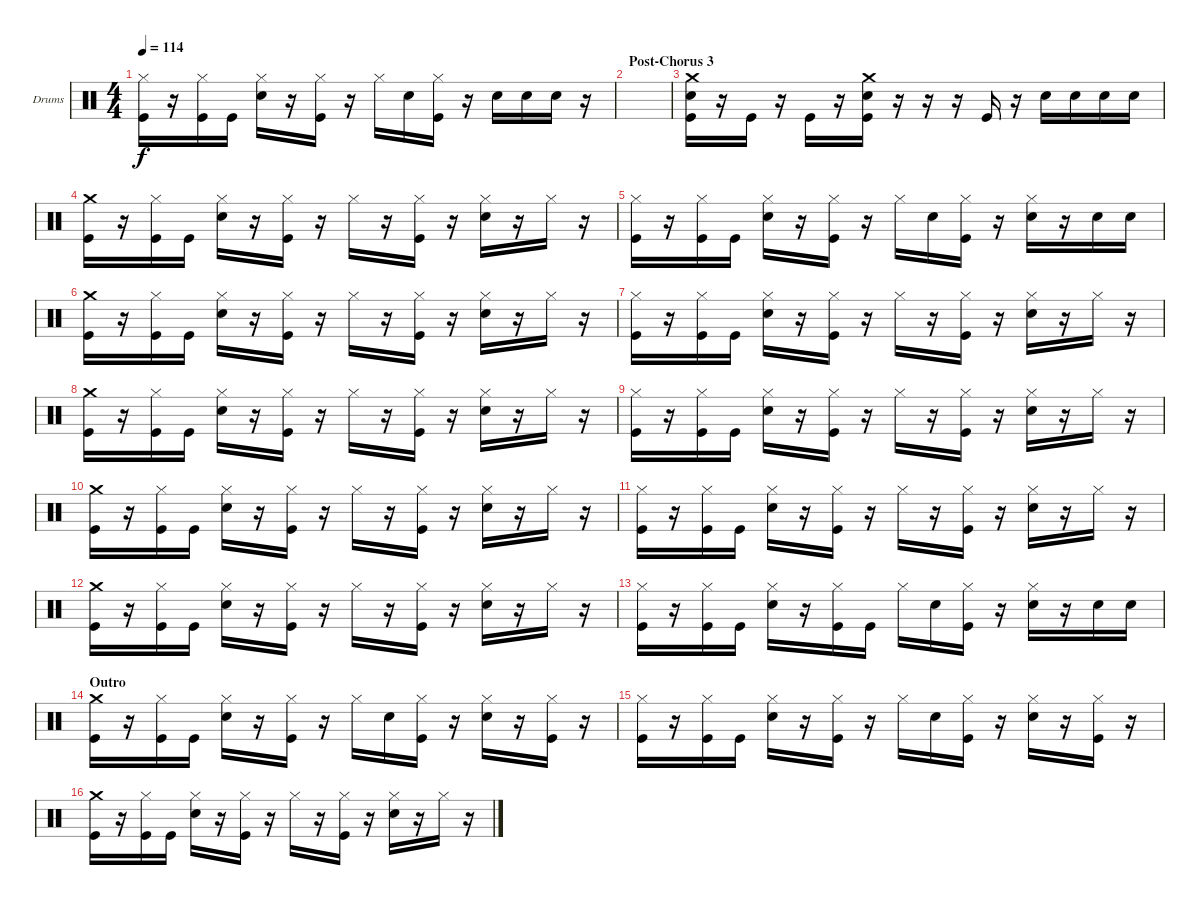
\bracketExtendMode groupsimilarinstruments
\firstSystemTrackNameOrientation horizontal
\otherSystemsTrackNameOrientation horizontal
\track ("Drums" "Drums") {instrument percussion}
\staff {score}
\articulation defaults
\ts (4 4)
\tempo 114
\clef neutral
\ks c
("Hi-Hat (closed)" "Kick (hit)").16{dy f} r.16 ("Hi-Hat (closed)" "Kick (hit)").16 "Kick (hit)".16 ("Hi-Hat (closed)" "Snare (hit) 2").16 r.16 ("Hi-Hat (closed)" "Kick (hit)").16 r.16 "Hi-Hat (closed)".16 "Snare (hit) 2".16 ("Hi-Hat (closed)" "Kick (hit)").16 r.16 "Snare (hit) 2".16 "Snare (hit) 2".16 "Snare (hit) 2".16 r.16 |
\section ("" "Post-Chorus 3")
|
("Crash medium (hit)" "Snare (hit) 2" "Kick (hit)").16 r.16 "Kick (hit)".16 r.16 "Kick (hit)".16 r.16 ("Crash medium (hit)" "Snare (hit) 2" "Kick (hit)").16 r.16 r.16 r.16 "Kick (hit)".16 r.16 "Snare (hit) 2".16 "Snare (hit) 2".16 "Snare (hit) 2".16 "Snare (hit) 2".16 |
("Crash medium (hit)" "Kick (hit)").16 r.16 ("Hi-Hat (closed)" "Kick (hit)").16 "Kick (hit)".16 ("Hi-Hat (closed)" "Snare (hit) 2").16 r.16 ("Hi-Hat (closed)" "Kick (hit)").16 r.16 "Hi-Hat (closed)".16 r.16 ("Hi-Hat (closed)" "Kick (hit)").16 r.16 ("Hi-Hat (closed)" "Snare (hit) 2").16 r.16 "Hi-Hat (closed)".16 r.16 |
("Hi-Hat (closed)" "Kick (hit)").16 r.16 ("Hi-Hat (closed)" "Kick (hit)").16 "Kick (hit)".16 ("Hi-Hat (closed)" "Snare (hit) 2").16 r.16 ("Hi-Hat (closed)" "Kick (hit)").16 r.16 "Hi-Hat (closed)".16 "Snare (hit) 2".16 ("Hi-Hat (closed)" "Kick (hit)").16 r.16 ("Hi-Hat (closed)" "Snare (hit) 2").16 r.16 "Snare (hit) 2".16 "Snare (hit) 2".16 |
("Crash medium (hit)" "Kick (hit)").16 r.16 ("Hi-Hat (closed)" "Kick (hit)").16 "Kick (hit)".16 ("Hi-Hat (closed)" "Snare (hit) 2").16 r.16 ("Hi-Hat (closed)" "Kick (hit)").16 r.16 "Hi-Hat (closed)".16 r.16 ("Hi-Hat (closed)" "Kick (hit)").16 r.16 ("Hi-Hat (closed)" "Snare (hit) 2").16 r.16 "Hi-Hat (closed)".16 r.16 |
("Hi-Hat (closed)" "Kick (hit)").16 r.16 ("Hi-Hat (closed)" "Kick (hit)").16 "Kick (hit)".16 ("Hi-Hat (closed)" "Snare (hit) 2").16 r.16 ("Hi-Hat (closed)" "Kick (hit)").16 r.16 "Hi-Hat (closed)".16 r.16 ("Hi-Hat (closed)" "Kick (hit)").16 r.16 ("Hi-Hat (closed)" "Snare (hit) 2").16 r.16 "Hi-Hat (closed)".16 r.16 |
("Crash medium (hit)" "Kick (hit)").16 r.16 ("Hi-Hat (closed)" "Kick (hit)").16 "Kick (hit)".16 ("Hi-Hat (closed)" "Snare (hit) 2").16 r.16 ("Hi-Hat (closed)" "Kick (hit)").16 r.16 "Hi-Hat (closed)".16 r.16 ("Hi-Hat (closed)" "Kick (hit)").16 r.16 ("Hi-Hat (closed)" "Snare (hit) 2").16 r.16 "Hi-Hat (closed)".16 r.16 |
("Hi-Hat (closed)" "Kick (hit)").16 r.16 ("Hi-Hat (closed)" "Kick (hit)").16 "Kick (hit)".16 ("Hi-Hat (closed)" "Snare (hit) 2").16 r.16 ("Hi-Hat (closed)" "Kick (hit)").16 r.16 "Hi-Hat (closed)".16 r.16 ("Hi-Hat (closed)" "Kick (hit)").16 r.16 ("Hi-Hat (closed)" "Snare (hit) 2").16 r.16 "Hi-Hat (closed)".16 r.16 |
("Crash medium (hit)" "Kick (hit)").16 r.16 ("Hi-Hat (closed)" "Kick (hit)").16 "Kick (hit)".16 ("Hi-Hat (closed)" "Snare (hit) 2").16 r.16 ("Hi-Hat (closed)" "Kick (hit)").16 r.16 "Hi-Hat (closed)".16 r.16 ("Hi-Hat (closed)" "Kick (hit)").16 r.16 ("Hi-Hat (closed)" "Snare (hit) 2").16 r.16 "Hi-Hat (closed)".16 r.16 |
("Hi-Hat (closed)" "Kick (hit)").16 r.16 ("Hi-Hat (closed)" "Kick (hit)").16 "Kick (hit)".16 ("Hi-Hat (closed)" "Snare (hit) 2").16 r.16 ("Hi-Hat (closed)" "Kick (hit)").16 r.16 "Hi-Hat (closed)".16 r.16 ("Hi-Hat (closed)" "Kick (hit)").16 r.16 ("Hi-Hat (closed)" "Snare (hit) 2").16 r.16 "Hi-Hat (closed)".16 r.16 |
("Crash medium (hit)" "Kick (hit)").16 r.16 ("Hi-Hat (closed)" "Kick (hit)").16 "Kick (hit)".16 ("Hi-Hat (closed)" "Snare (hit) 2").16 r.16 ("Hi-Hat (closed)" "Kick (hit)").16 r.16 "Hi-Hat (closed)".16 r.16 ("Hi-Hat (closed)" "Kick (hit)").16 r.16 ("Hi-Hat (closed)" "Snare (hit) 2").16 r.16 "Hi-Hat (closed)".16 r.16 |
("Hi-Hat (closed)" "Kick (hit)").16 r.16 ("Hi-Hat (closed)" "Kick (hit)").16 "Kick (hit)".16 ("Hi-Hat (closed)" "Snare (hit) 2").16 r.16 ("Hi-Hat (closed)" "Kick (hit)").16 "Kick (hit)".16 "Hi-Hat (closed)".16 "Snare (hit) 2".16 ("Hi-Hat (closed)" "Kick (hit)").16 r.16 ("Hi-Hat (closed)" "Snare (hit) 2").16 r.16 "Snare (hit) 2".16 "Snare (hit) 2".16 |
\section ("" "Outro")
("Crash medium (hit)" "Kick (hit)").16 r.16 ("Hi-Hat (closed)" "Kick (hit)").16 "Kick (hit)".16 ("Hi-Hat (closed)" "Snare (hit) 2").16 r.16 ("Hi-Hat (closed)" "Kick (hit)").16 r.16 "Hi-Hat (closed)".16 "Snare (hit) 2".16 ("Hi-Hat (closed)" "Kick (hit)").16 r.16 ("Hi-Hat (closed)" "Snare (hit) 2").16 r.16 ("Hi-Hat (closed)" "Kick (hit)").16 r.16 |
("Hi-Hat (closed)" "Kick (hit)").16 r.16 ("Hi-Hat (closed)" "Kick (hit)").16 "Kick (hit)".16 ("Hi-Hat (closed)" "Snare (hit) 2").16 r.16 ("Hi-Hat (closed)" "Kick (hit)").16 r.16 "Hi-Hat (closed)".16 "Snare (hit) 2".16 ("Hi-Hat (closed)" "Kick (hit)").16 r.16 ("Hi-Hat (closed)" "Snare (hit) 2").16 r.16 ("Hi-Hat (closed)" "Kick (hit)").16 r.16 |
("Crash medium (hit)" "Kick (hit)").16 r.16 ("Hi-Hat (closed)" "Kick (hit)").16 "Kick (hit)".16 ("Hi-Hat (closed)" "Snare (hit) 2").16 r.16 ("Hi-Hat (closed)" "Kick (hit)").16 r.16 "Hi-Hat (closed)".16 r.16 ("Hi-Hat (closed)" "Kick (hit)").16 r.16 ("Hi-Hat (closed)" "Snare (hit) 2").16 r.16 "Hi-Hat (closed)".16 r.16
